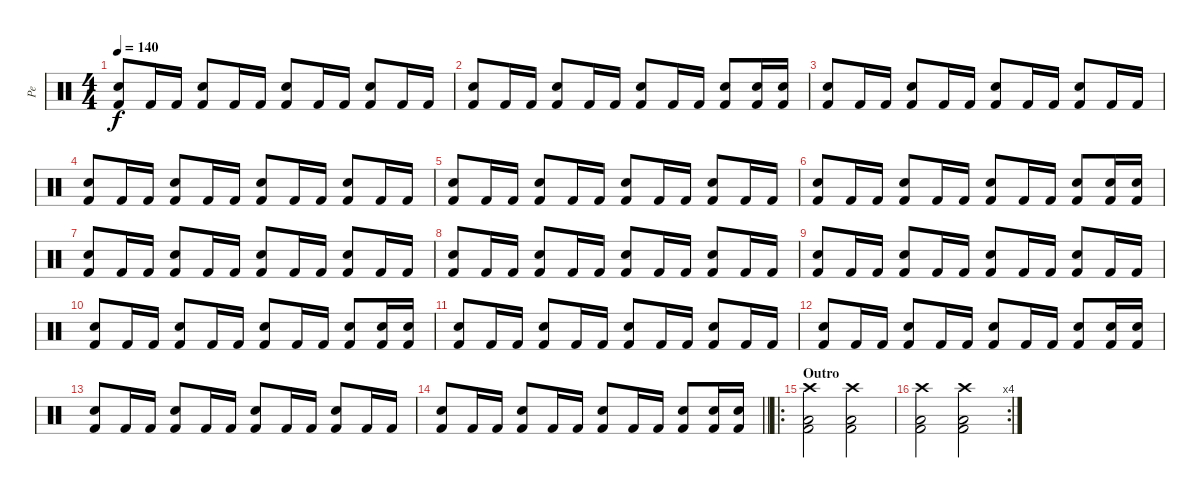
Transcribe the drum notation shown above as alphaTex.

\track ("Pe" "Pe") {instrument percussion}
\staff {score}
\articulation defaults
\ts (4 4)
\tempo 140
\clef neutral
\ks c
("Snare (hit) 2" "Kick (hit) 2").8{dy f} "Kick (hit) 2".16 "Kick (hit) 2".16 ("Snare (hit) 2" "Kick (hit) 2").8 "Kick (hit) 2".16 "Kick (hit) 2".16 ("Snare (hit) 2" "Kick (hit) 2").8 "Kick (hit) 2".16 "Kick (hit) 2".16 ("Snare (hit) 2" "Kick (hit) 2").8 "Kick (hit) 2".16 "Kick (hit) 2".16 |
("Snare (hit) 2" "Kick (hit) 2").8 "Kick (hit) 2".16 "Kick (hit) 2".16 ("Snare (hit) 2" "Kick (hit) 2").8 "Kick (hit) 2".16 "Kick (hit) 2".16 ("Snare (hit) 2" "Kick (hit) 2").8 "Kick (hit) 2".16 "Kick (hit) 2".16 ("Snare (hit) 2" "Kick (hit) 2").8 ("Snare (hit) 2" "Kick (hit) 2").16 ("Snare (hit) 2" "Kick (hit) 2").16 |
("Snare (hit) 2" "Kick (hit) 2").8 "Kick (hit) 2".16 "Kick (hit) 2".16 ("Snare (hit) 2" "Kick (hit) 2").8 "Kick (hit) 2".16 "Kick (hit) 2".16 ("Snare (hit) 2" "Kick (hit) 2").8 "Kick (hit) 2".16 "Kick (hit) 2".16 ("Snare (hit) 2" "Kick (hit) 2").8 "Kick (hit) 2".16 "Kick (hit) 2".16 |
("Snare (hit) 2" "Kick (hit) 2").8 "Kick (hit) 2".16 "Kick (hit) 2".16 ("Snare (hit) 2" "Kick (hit) 2").8 "Kick (hit) 2".16 "Kick (hit) 2".16 ("Snare (hit) 2" "Kick (hit) 2").8 "Kick (hit) 2".16 "Kick (hit) 2".16 ("Snare (hit) 2" "Kick (hit) 2").8 "Kick (hit) 2".16 "Kick (hit) 2".16 |
("Snare (hit) 2" "Kick (hit) 2").8 "Kick (hit) 2".16 "Kick (hit) 2".16 ("Snare (hit) 2" "Kick (hit) 2").8 "Kick (hit) 2".16 "Kick (hit) 2".16 ("Snare (hit) 2" "Kick (hit) 2").8 "Kick (hit) 2".16 "Kick (hit) 2".16 ("Snare (hit) 2" "Kick (hit) 2").8 "Kick (hit) 2".16 "Kick (hit) 2".16 |
("Snare (hit) 2" "Kick (hit) 2").8 "Kick (hit) 2".16 "Kick (hit) 2".16 ("Snare (hit) 2" "Kick (hit) 2").8 "Kick (hit) 2".16 "Kick (hit) 2".16 ("Snare (hit) 2" "Kick (hit) 2").8 "Kick (hit) 2".16 "Kick (hit) 2".16 ("Snare (hit) 2" "Kick (hit) 2").8 ("Snare (hit) 2" "Kick (hit) 2").16 ("Snare (hit) 2" "Kick (hit) 2").16 |
("Snare (hit) 2" "Kick (hit) 2").8 "Kick (hit) 2".16 "Kick (hit) 2".16 ("Snare (hit) 2" "Kick (hit) 2").8 "Kick (hit) 2".16 "Kick (hit) 2".16 ("Snare (hit) 2" "Kick (hit) 2").8 "Kick (hit) 2".16 "Kick (hit) 2".16 ("Snare (hit) 2" "Kick (hit) 2").8 "Kick (hit) 2".16 "Kick (hit) 2".16 |
("Snare (hit) 2" "Kick (hit) 2").8 "Kick (hit) 2".16 "Kick (hit) 2".16 ("Snare (hit) 2" "Kick (hit) 2").8 "Kick (hit) 2".16 "Kick (hit) 2".16 ("Snare (hit) 2" "Kick (hit) 2").8 "Kick (hit) 2".16 "Kick (hit) 2".16 ("Snare (hit) 2" "Kick (hit) 2").8 "Kick (hit) 2".16 "Kick (hit) 2".16 |
("Snare (hit) 2" "Kick (hit) 2").8 "Kick (hit) 2".16 "Kick (hit) 2".16 ("Snare (hit) 2" "Kick (hit) 2").8 "Kick (hit) 2".16 "Kick (hit) 2".16 ("Snare (hit) 2" "Kick (hit) 2").8 "Kick (hit) 2".16 "Kick (hit) 2".16 ("Snare (hit) 2" "Kick (hit) 2").8 "Kick (hit) 2".16 "Kick (hit) 2".16 |
("Snare (hit) 2" "Kick (hit) 2").8 "Kick (hit) 2".16 "Kick (hit) 2".16 ("Snare (hit) 2" "Kick (hit) 2").8 "Kick (hit) 2".16 "Kick (hit) 2".16 ("Snare (hit) 2" "Kick (hit) 2").8 "Kick (hit) 2".16 "Kick (hit) 2".16 ("Snare (hit) 2" "Kick (hit) 2").8 ("Snare (hit) 2" "Kick (hit) 2").16 ("Snare (hit) 2" "Kick (hit) 2").16 |
("Snare (hit) 2" "Kick (hit) 2").8 "Kick (hit) 2".16 "Kick (hit) 2".16 ("Snare (hit) 2" "Kick (hit) 2").8 "Kick (hit) 2".16 "Kick (hit) 2".16 ("Snare (hit) 2" "Kick (hit) 2").8 "Kick (hit) 2".16 "Kick (hit) 2".16 ("Snare (hit) 2" "Kick (hit) 2").8 "Kick (hit) 2".16 "Kick (hit) 2".16 |
("Snare (hit) 2" "Kick (hit) 2").8 "Kick (hit) 2".16 "Kick (hit) 2".16 ("Snare (hit) 2" "Kick (hit) 2").8 "Kick (hit) 2".16 "Kick (hit) 2".16 ("Snare (hit) 2" "Kick (hit) 2").8 "Kick (hit) 2".16 "Kick (hit) 2".16 ("Snare (hit) 2" "Kick (hit) 2").8 ("Snare (hit) 2" "Kick (hit) 2").16 ("Snare (hit) 2" "Kick (hit) 2").16 |
("Snare (hit) 2" "Kick (hit) 2").8 "Kick (hit) 2".16 "Kick (hit) 2".16 ("Snare (hit) 2" "Kick (hit) 2").8 "Kick (hit) 2".16 "Kick (hit) 2".16 ("Snare (hit) 2" "Kick (hit) 2").8 "Kick (hit) 2".16 "Kick (hit) 2".16 ("Snare (hit) 2" "Kick (hit) 2").8 "Kick (hit) 2".16 "Kick (hit) 2".16 |
\barLineRight lightlight
("Snare (hit) 2" "Kick (hit) 2").8 "Kick (hit) 2".16 "Kick (hit) 2".16 ("Snare (hit) 2" "Kick (hit) 2").8 "Kick (hit) 2".16 "Kick (hit) 2".16 ("Snare (hit) 2" "Kick (hit) 2").8 "Kick (hit) 2".16 "Kick (hit) 2".16 ("Snare (hit) 2" "Kick (hit) 2").8 ("Snare (hit) 2" "Kick (hit) 2").16 ("Snare (hit) 2" "Kick (hit) 2").16 |
\ro
\section ("" "Outro")
("Low Floor Tom (hit)" "Crash high (hit)" "Kick (hit) 2").2 ("Low Floor Tom (hit)" "Crash high (hit)" "Kick (hit) 2").2 |
\rc 4
("Low Floor Tom (hit)" "Crash high (hit)" "Kick (hit) 2").2 ("Low Floor Tom (hit)" "Crash high (hit)" "Kick (hit) 2").2
